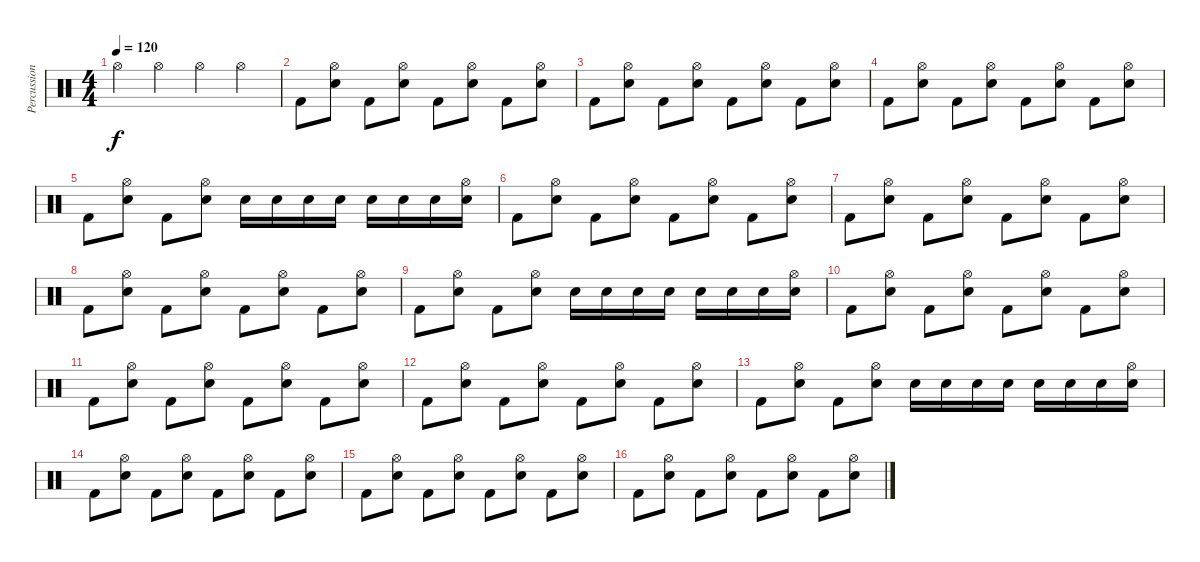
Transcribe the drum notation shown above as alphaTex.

\track ("Percussion" "Percussion") {instrument percussion}
\staff {score}
\articulation defaults
\ts (4 4)
\tempo 120
\clef neutral
\ks c "Hi-Hat (open)".4{dy f} "Hi-Hat (open)".4 "Hi-Hat (open)".4 "Hi-Hat (open)".4
|
"Kick (hit) 2".8 ("Electric Snare (hit)" "Hi-Hat (open)").8 "Kick (hit) 2".8 ("Electric Snare (hit)" "Hi-Hat (open)").8 "Kick (hit) 2".8 ("Electric Snare (hit)" "Hi-Hat (open)").8 "Kick (hit) 2".8 ("Electric Snare (hit)" "Hi-Hat (open)").8 |
"Kick (hit) 2".8 ("Electric Snare (hit)" "Hi-Hat (open)").8 "Kick (hit) 2".8 ("Electric Snare (hit)" "Hi-Hat (open)").8 "Kick (hit) 2".8 ("Electric Snare (hit)" "Hi-Hat (open)").8 "Kick (hit) 2".8 ("Electric Snare (hit)" "Hi-Hat (open)").8 |
"Kick (hit) 2".8 ("Electric Snare (hit)" "Hi-Hat (open)").8 "Kick (hit) 2".8 ("Electric Snare (hit)" "Hi-Hat (open)").8 "Kick (hit) 2".8 ("Electric Snare (hit)" "Hi-Hat (open)").8 "Kick (hit) 2".8 ("Electric Snare (hit)" "Hi-Hat (open)").8 |
"Kick (hit) 2".8 ("Electric Snare (hit)" "Hi-Hat (open)").8 "Kick (hit) 2".8 ("Electric Snare (hit)" "Hi-Hat (open)").8 "Electric Snare (hit)".16 "Electric Snare (hit)".16 "Electric Snare (hit)".16 "Electric Snare (hit)".16 "Electric Snare (hit)".16 "Electric Snare (hit)".16 "Electric Snare (hit)".16 ("Electric Snare (hit)" "Hi-Hat (open)").16 |
"Kick (hit) 2".8 ("Electric Snare (hit)" "Hi-Hat (open)").8 "Kick (hit) 2".8 ("Electric Snare (hit)" "Hi-Hat (open)").8 "Kick (hit) 2".8 ("Electric Snare (hit)" "Hi-Hat (open)").8 "Kick (hit) 2".8 ("Electric Snare (hit)" "Hi-Hat (open)").8 |
"Kick (hit) 2".8 ("Electric Snare (hit)" "Hi-Hat (open)").8 "Kick (hit) 2".8 ("Electric Snare (hit)" "Hi-Hat (open)").8 "Kick (hit) 2".8 ("Electric Snare (hit)" "Hi-Hat (open)").8 "Kick (hit) 2".8 ("Electric Snare (hit)" "Hi-Hat (open)").8 |
"Kick (hit) 2".8 ("Electric Snare (hit)" "Hi-Hat (open)").8 "Kick (hit) 2".8 ("Electric Snare (hit)" "Hi-Hat (open)").8 "Kick (hit) 2".8 ("Electric Snare (hit)" "Hi-Hat (open)").8 "Kick (hit) 2".8 ("Electric Snare (hit)" "Hi-Hat (open)").8 |
"Kick (hit) 2".8 ("Electric Snare (hit)" "Hi-Hat (open)").8 "Kick (hit) 2".8 ("Electric Snare (hit)" "Hi-Hat (open)").8 "Electric Snare (hit)".16 "Electric Snare (hit)".16 "Electric Snare (hit)".16 "Electric Snare (hit)".16 "Electric Snare (hit)".16 "Electric Snare (hit)".16 "Electric Snare (hit)".16 ("Electric Snare (hit)" "Hi-Hat (open)").16 |
"Kick (hit) 2".8 ("Electric Snare (hit)" "Hi-Hat (open)").8 "Kick (hit) 2".8 ("Electric Snare (hit)" "Hi-Hat (open)").8 "Kick (hit) 2".8 ("Electric Snare (hit)" "Hi-Hat (open)").8 "Kick (hit) 2".8 ("Electric Snare (hit)" "Hi-Hat (open)").8 |
"Kick (hit) 2".8 ("Electric Snare (hit)" "Hi-Hat (open)").8 "Kick (hit) 2".8 ("Electric Snare (hit)" "Hi-Hat (open)").8 "Kick (hit) 2".8 ("Electric Snare (hit)" "Hi-Hat (open)").8 "Kick (hit) 2".8 ("Electric Snare (hit)" "Hi-Hat (open)").8 |
"Kick (hit) 2".8 ("Electric Snare (hit)" "Hi-Hat (open)").8 "Kick (hit) 2".8 ("Electric Snare (hit)" "Hi-Hat (open)").8 "Kick (hit) 2".8 ("Electric Snare (hit)" "Hi-Hat (open)").8 "Kick (hit) 2".8 ("Electric Snare (hit)" "Hi-Hat (open)").8 |
"Kick (hit) 2".8 ("Electric Snare (hit)" "Hi-Hat (open)").8 "Kick (hit) 2".8 ("Electric Snare (hit)" "Hi-Hat (open)").8 "Electric Snare (hit)".16 "Electric Snare (hit)".16 "Electric Snare (hit)".16 "Electric Snare (hit)".16 "Electric Snare (hit)".16 "Electric Snare (hit)".16 "Electric Snare (hit)".16 ("Electric Snare (hit)" "Hi-Hat (open)").16 |
"Kick (hit) 2".8 ("Electric Snare (hit)" "Hi-Hat (open)").8 "Kick (hit) 2".8 ("Electric Snare (hit)" "Hi-Hat (open)").8 "Kick (hit) 2".8 ("Electric Snare (hit)" "Hi-Hat (open)").8 "Kick (hit) 2".8 ("Electric Snare (hit)" "Hi-Hat (open)").8 |
"Kick (hit) 2".8 ("Electric Snare (hit)" "Hi-Hat (open)").8 "Kick (hit) 2".8 ("Electric Snare (hit)" "Hi-Hat (open)").8 "Kick (hit) 2".8 ("Electric Snare (hit)" "Hi-Hat (open)").8 "Kick (hit) 2".8 ("Electric Snare (hit)" "Hi-Hat (open)").8 |
"Kick (hit) 2".8 ("Electric Snare (hit)" "Hi-Hat (open)").8 "Kick (hit) 2".8 ("Electric Snare (hit)" "Hi-Hat (open)").8 "Kick (hit) 2".8 ("Electric Snare (hit)" "Hi-Hat (open)").8 "Kick (hit) 2".8 ("Electric Snare (hit)" "Hi-Hat (open)").8
